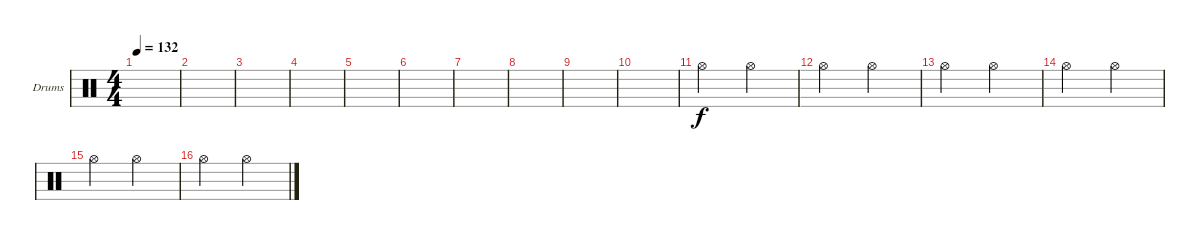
\defaultSystemsLayout 4
\bracketExtendMode groupsimilarinstruments
\firstSystemTrackNameOrientation horizontal
\otherSystemsTrackNameOrientation horizontal
\track ("Drumkit" "Drums") {instrument percussion}
\staff {score}
\articulation defaults
\ts (4 4)
\tempo 132
\clef neutral
\scale
0.474178
\ks c
|
\scale
0.262911 |
\scale
0.262911 |
\scale
0.333333 |
\scale
0.333333 |
\scale
0.333333 |
\scale
0.333333 |
\scale
0.333333 |
\scale
0.333333 |
\scale
0.333333 |
\scale
0.333333 "Hi-Hat (open)".2 "Hi-Hat (open)".2 |
\scale
0.333333 "Hi-Hat (open)".2 "Hi-Hat (open)".2 |
\scale
0.333333 "Hi-Hat (open)".2 "Hi-Hat (open)".2 |
\scale
0.333333 "Hi-Hat (open)".2 "Hi-Hat (open)".2 |
\scale
0.333333 "Hi-Hat (open)".2 "Hi-Hat (open)".2 |
\scale
0.333333 "Hi-Hat (open)".2 "Hi-Hat (open)".2
